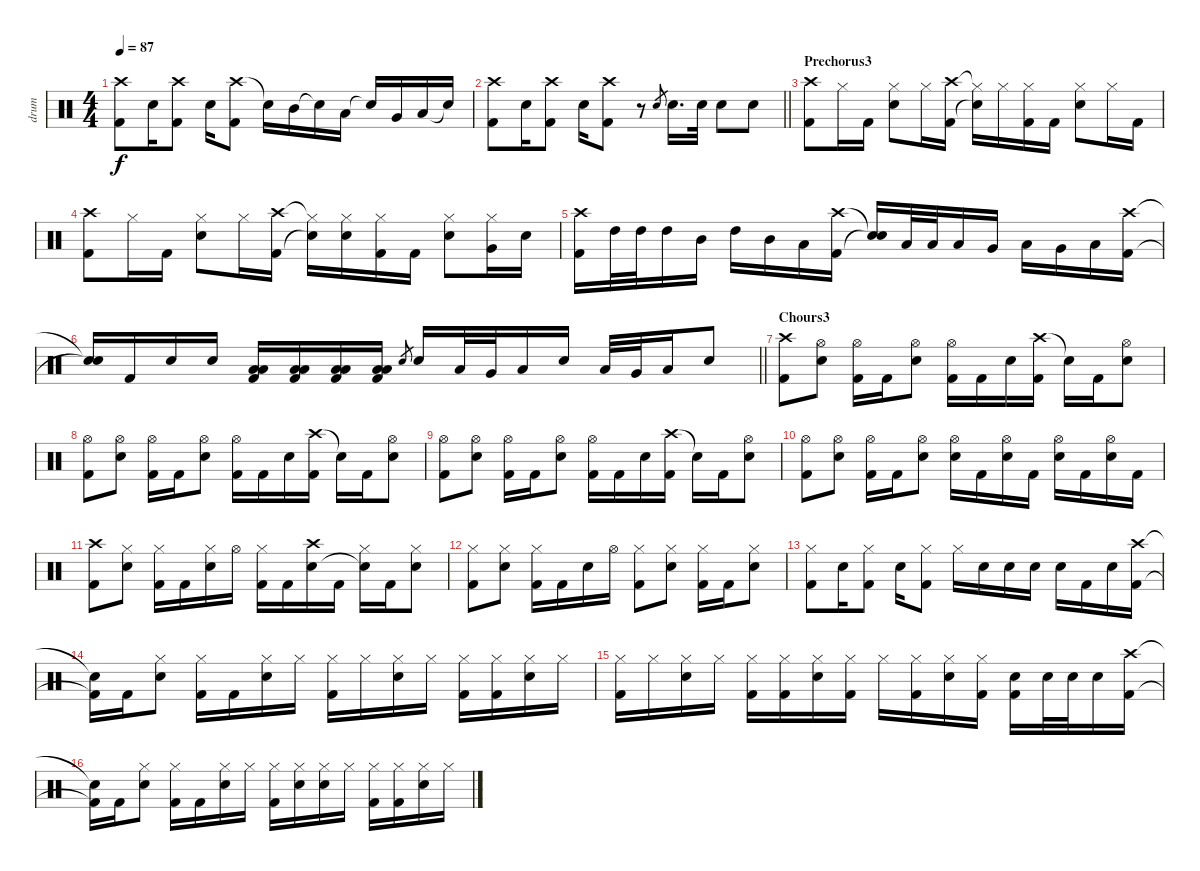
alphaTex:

\track ("drum" "drum") {instrument percussion}
\staff {score}
\articulation defaults
\ts (4 4)
\tempo 87
\clef neutral
\ks c
("Crash high (hit)" "Kick (hit) 2").8{dy f} "Snare (hit) 2".16 ("Crash high (hit)" "Kick (hit) 2").8 "Snare (hit) 2".16 ("Crash high (hit)" "Kick (hit) 2").8 "Snare (hit)"{t}.16 "Mid Tom (hit)".16 "Snare (hit)"{t}.16 "Low Tom (hit)".16 "Snare (hit)"{t}.16 "Very Low Tom (hit)".16 "Low Floor Tom (hit)".16 "Snare (hit)"{t}.16 |
\barLineRight lightlight
("Crash high (hit)" "Kick (hit) 2").8 "Snare (hit) 2".16 ("Crash high (hit)" "Kick (hit) 2").8 "Snare (hit) 2".16 ("Crash high (hit)" "Kick (hit) 2").8 r.8 "Snare (hit) 2".8{gr} "Snare (hit) 2".16{d} "Snare (hit) 2".32 "Snare (hit) 2".8 "Snare (hit) 2".8 |
\section ("" "Prechorus3")
("Crash high (hit)" "Kick (hit) 2").8 "Hi-Hat (closed)".16 "Kick (hit) 2".16 ("Hi-Hat (closed)" "Snare (hit) 2").8 "Hi-Hat (closed)".16 ("Crash high (hit)" "Kick (hit) 2").16 ("Hi-Hat (closed)"{t} "Snare (hit)"{t}).16 "Hi-Hat (closed)".16 ("Hi-Hat (closed)" "Kick (hit) 2").16 "Kick (hit) 2".16 ("Hi-Hat (closed)" "Snare (hit) 2").8 "Hi-Hat (closed)".16 "Kick (hit) 2".16 |
("Crash high (hit)" "Kick (hit) 2").8 "Hi-Hat (closed)".16 "Kick (hit) 2".16 ("Hi-Hat (closed)" "Snare (hit) 2").8 "Hi-Hat (closed)".16 ("Crash high (hit)" "Kick (hit) 2").16 ("Hi-Hat (closed)"{t} "Snare (hit)"{t}).16 ("Hi-Hat (closed)" "Snare (hit) 2").16 ("Hi-Hat (closed)" "Kick (hit) 2").16 "Kick (hit) 2".16 ("Hi-Hat (closed)" "Snare (hit) 2").8 ("Hi-Hat (closed)" "Very Low Tom (hit)").16 "Snare (hit) 2".16 |
("Crash high (hit)" "Kick (hit) 2").16 "High Tom (hit)".32 "High Tom (hit)".32 "High Tom (hit)".16 "Mid Tom (hit)".16 "High Tom (hit)".16 "Mid Tom (hit)".16 "Low Tom (hit)".16 ("Crash high (hit)" "Kick (hit) 2").16 ("Snare (hit)"{t} "Snare (hit)"{t}).16 "Low Tom (hit)".32 "Low Tom (hit)".32 "Low Tom (hit)".16 "Very Low Tom (hit)".16 "Low Tom (hit)".16 "Very Low Tom (hit)".16 "Low Floor Tom (hit)".16 ("Crash high (hit)" "Kick (hit) 2").16 |
\barLineRight lightlight
("Snare (hit)"{t} "Snare (hit)"{t}).16 "Kick (hit) 2".16 "Snare (hit) 2".16 "Snare (hit) 2".16 ("Low Tom (hit)" "Low Floor Tom (hit)" "Kick (hit) 2").16 ("Low Tom (hit)" "Low Floor Tom (hit)" "Kick (hit) 2").16 ("Low Tom (hit)" "Low Floor Tom (hit)" "Kick (hit) 2").16 ("Low Tom (hit)" "Low Floor Tom (hit)" "Kick (hit) 2").16 "Snare (hit) 2".8{gr} "Snare (hit) 2".16 "Low Tom (hit)".32 "Very Low Tom (hit)".32 "Low Floor Tom (hit)".16 "Snare (hit) 2".16 "Low Tom (hit)".32 "Very Low Tom (hit)".32 "Low Floor Tom (hit)".16 "Snare (hit) 2".8 |
\section ("" "Chours3")
("Crash high (hit)" "Kick (hit) 2").8 ("Hi-Hat (open)" "Snare (hit) 2").8 ("Hi-Hat (open)" "Kick (hit) 2").16 "Kick (hit) 2".16 ("Hi-Hat (open)" "Snare (hit) 2").8 ("Hi-Hat (open)" "Kick (hit) 2").16 "Kick (hit) 2".16 "Snare (hit) 2".16 ("Crash high (hit)" "Kick (hit) 2").16 "Snare (hit)"{t}.16 "Kick (hit) 2".16 ("Hi-Hat (open)" "Snare (hit) 2").8 |
("Hi-Hat (open)" "Kick (hit) 2").8 ("Hi-Hat (open)" "Snare (hit) 2").8 ("Hi-Hat (open)" "Kick (hit) 2").16 "Kick (hit) 2".16 ("Hi-Hat (open)" "Snare (hit) 2").8 ("Hi-Hat (open)" "Kick (hit) 2").16 "Kick (hit) 2".16 "Snare (hit) 2".16 ("Crash high (hit)" "Kick (hit) 2").16 "Snare (hit)"{t}.16 "Kick (hit) 2".16 ("Hi-Hat (open)" "Snare (hit) 2").8 |
("Hi-Hat (open)" "Kick (hit) 2").8 ("Hi-Hat (open)" "Snare (hit) 2").8 ("Hi-Hat (open)" "Kick (hit) 2").16 "Kick (hit) 2".16 ("Hi-Hat (open)" "Snare (hit) 2").8 ("Hi-Hat (open)" "Kick (hit) 2").16 "Kick (hit) 2".16 "Snare (hit) 2".16 ("Crash high (hit)" "Kick (hit) 2").16 "Snare (hit)"{t}.16 "Kick (hit) 2".16 ("Hi-Hat (open)" "Snare (hit) 2").8 |
("Hi-Hat (open)" "Kick (hit) 2").8 ("Hi-Hat (open)" "Snare (hit) 2").8 ("Hi-Hat (open)" "Kick (hit) 2").16 "Kick (hit) 2".16 ("Hi-Hat (open)" "Snare (hit) 2").8 ("Hi-Hat (open)" "Snare (hit) 2").16 "Kick (hit) 2".16 ("Hi-Hat (open)" "Snare (hit) 2").16 "Kick (hit) 2".16 ("Hi-Hat (open)" "Snare (hit) 2").16 "Kick (hit) 2".16 ("Hi-Hat (open)" "Snare (hit) 2").16 "Kick (hit) 2".16 |
("Crash high (hit)" "Kick (hit) 2").8 ("Hi-Hat (closed)" "Snare (hit) 2").8 ("Hi-Hat (closed)" "Kick (hit) 2").16 "Kick (hit) 2".16 ("Hi-Hat (closed)" "Snare (hit) 2").16 "Hi-Hat (open)".16 ("Hi-Hat (closed)" "Kick (hit) 2").16 "Kick (hit) 2".16 ("Crash high (hit)" "Snare (hit) 2").16 "Kick (hit) 2".16 ("Hi-Hat (closed)" "Snare (hit)"{t}).16 "Kick (hit) 2".16 ("Hi-Hat (closed)" "Snare (hit) 2").8 |
("Hi-Hat (closed)" "Kick (hit) 2").8 ("Hi-Hat (closed)" "Snare (hit) 2").8 ("Hi-Hat (closed)" "Kick (hit) 2").16 "Kick (hit) 2".16 "Snare (hit) 2".16 "Hi-Hat (open)".16 ("Hi-Hat (closed)" "Kick (hit) 2").8 ("Hi-Hat (closed)" "Snare (hit) 2").8 ("Hi-Hat (closed)" "Kick (hit) 2").16 "Kick (hit) 2".16 ("Hi-Hat (closed)" "Snare (hit) 2").8 |
("Hi-Hat (closed)" "Kick (hit) 2").8 "Snare (hit) 2".16 ("Hi-Hat (closed)" "Kick (hit) 2").8 "Snare (hit) 2".16 ("Hi-Hat (closed)" "Kick (hit) 2").8 "Hi-Hat (closed)".16 "Snare (hit) 2".16 "Snare (hit) 2".16 "Snare (hit) 2".16 "Snare (hit) 2".16 "Kick (hit) 2".16 "Snare (hit) 2".16 ("Crash high (hit)" "Kick (hit) 2").16 |
("Snare (hit)"{t} "Kick (hit) 2"{t}).16 "Kick (hit) 2".16 ("Hi-Hat (closed)" "Snare (hit) 2").8 ("Hi-Hat (closed)" "Kick (hit) 2").16 "Kick (hit) 2".16 ("Hi-Hat (closed)" "Snare (hit) 2").16 "Hi-Hat (closed)".16 ("Hi-Hat (closed)" "Kick (hit) 2").16 "Hi-Hat (closed)".16 ("Hi-Hat (closed)" "Snare (hit) 2").16 "Hi-Hat (closed)".16 ("Hi-Hat (closed)" "Kick (hit) 2").16 ("Hi-Hat (closed)" "Kick (hit) 2").16 ("Hi-Hat (closed)" "Snare (hit) 2").16 "Hi-Hat (closed)".16 |
("Hi-Hat (closed)" "Kick (hit) 2").16 "Hi-Hat (closed)".16 ("Hi-Hat (closed)" "Snare (hit) 2").16 "Hi-Hat (closed)".16 ("Hi-Hat (closed)" "Kick (hit) 2").16 ("Hi-Hat (closed)" "Kick (hit) 2").16 ("Hi-Hat (closed)" "Snare (hit) 2").16 ("Hi-Hat (closed)" "Kick (hit) 2").16 "Hi-Hat (closed)".16 ("Hi-Hat (closed)" "Kick (hit) 2").16 ("Hi-Hat (closed)" "Snare (hit) 2").16 ("Hi-Hat (closed)" "Kick (hit) 2").16 ("Snare (hit) 2" "Kick (hit) 2").16 "Snare (hit) 2".32 "Snare (hit) 2".32 "Snare (hit) 2".16 ("Crash high (hit)" "Kick (hit) 2").16 |
("Snare (hit)"{t} "Kick (hit) 2"{t}).16 "Kick (hit) 2".16 ("Hi-Hat (closed)" "Snare (hit) 2").8 ("Hi-Hat (closed)" "Kick (hit) 2").16 "Kick (hit) 2".16 ("Hi-Hat (closed)" "Snare (hit) 2").16 "Hi-Hat (closed)".16 ("Hi-Hat (closed)" "Kick (hit) 2").16 ("Hi-Hat (closed)" "Snare (hit) 2").16 ("Hi-Hat (closed)" "Snare (hit) 2").16 "Hi-Hat (closed)".16 ("Hi-Hat (closed)" "Kick (hit) 2").16 ("Hi-Hat (closed)" "Kick (hit) 2").16 ("Hi-Hat (closed)" "Snare (hit) 2").16 "Hi-Hat (closed)".16
